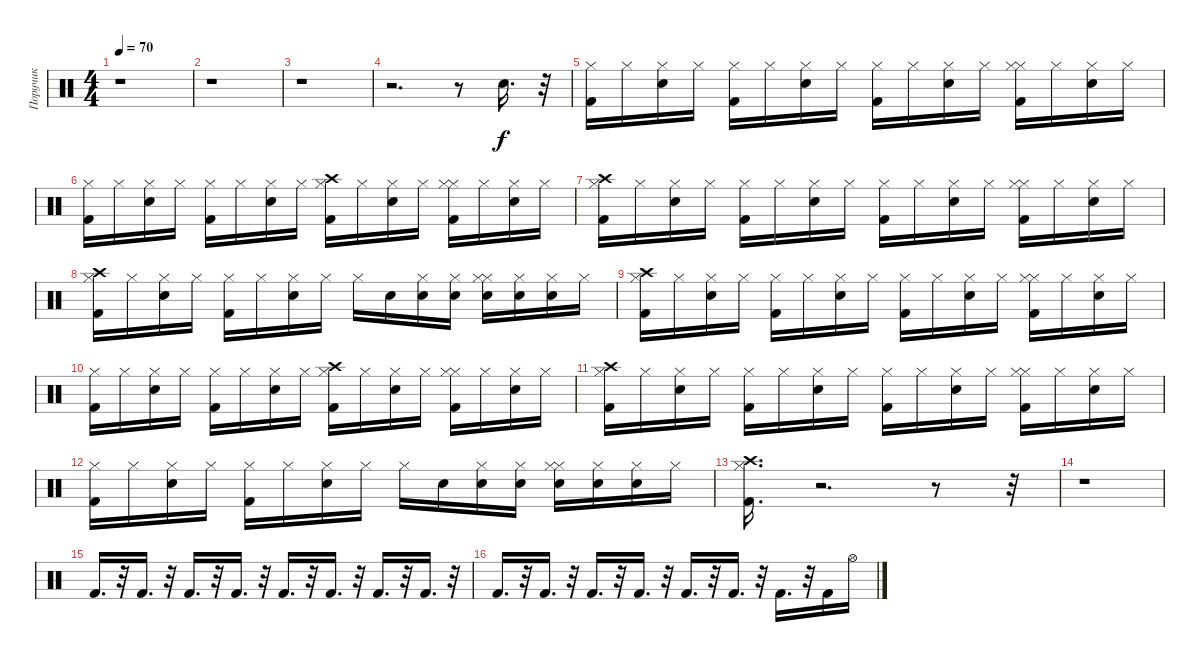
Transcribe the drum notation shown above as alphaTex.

\track ("Поручик" "Поручик") {instrument percussion}
\staff {score}
\articulation defaults
\ts (4 4)
\tempo 70
\clef neutral
\ks c
r.1{dy f} |
r.1 |
r.1 |
r.2{d} r.8 "Electric Snare (hit)".16{d} r.32 |
("Hi-Hat (closed)" "Kick (hit) 2").16 "Hi-Hat (closed)".16 ("Hi-Hat (closed)" "Electric Snare (hit)").16 "Hi-Hat (closed)".16 ("Hi-Hat (closed)" "Kick (hit) 2").16 "Hi-Hat (closed)".16 ("Hi-Hat (closed)" "Electric Snare (hit)").16 "Hi-Hat (closed)".16 ("Hi-Hat (closed)" "Kick (hit) 2").16 "Hi-Hat (closed)".16 ("Hi-Hat (closed)" "Electric Snare (hit)").16 "Hi-Hat (closed)".16 ("Hi-Hat (closed)" "Hi-Hat (closed)" "Kick (hit) 2").16 "Hi-Hat (closed)".16 ("Hi-Hat (closed)" "Electric Snare (hit)").16 "Hi-Hat (closed)".16 |
("Hi-Hat (closed)" "Kick (hit) 2").16 "Hi-Hat (closed)".16 ("Hi-Hat (closed)" "Electric Snare (hit)").16 "Hi-Hat (closed)".16 ("Hi-Hat (closed)" "Kick (hit) 2").16 "Hi-Hat (closed)".16 ("Hi-Hat (closed)" "Electric Snare (hit)").16 "Hi-Hat (closed)".16 ("Crash high (hit)" "Hi-Hat (closed)" "Kick (hit) 2").16 "Hi-Hat (closed)".16 ("Hi-Hat (closed)" "Electric Snare (hit)").16 "Hi-Hat (closed)".16 ("Hi-Hat (closed)" "Hi-Hat (closed)" "Kick (hit) 2").16 "Hi-Hat (closed)".16 ("Hi-Hat (closed)" "Electric Snare (hit)").16 "Hi-Hat (closed)".16 |
("Hi-Hat (closed)" "Kick (hit) 2" "Crash high (hit)").16 "Hi-Hat (closed)".16 ("Hi-Hat (closed)" "Electric Snare (hit)").16 "Hi-Hat (closed)".16 ("Hi-Hat (closed)" "Kick (hit) 2").16 "Hi-Hat (closed)".16 ("Hi-Hat (closed)" "Electric Snare (hit)").16 "Hi-Hat (closed)".16 ("Hi-Hat (closed)" "Kick (hit) 2").16 "Hi-Hat (closed)".16 ("Hi-Hat (closed)" "Electric Snare (hit)").16 "Hi-Hat (closed)".16 ("Hi-Hat (closed)" "Hi-Hat (closed)" "Kick (hit) 2").16 "Hi-Hat (closed)".16 ("Hi-Hat (closed)" "Electric Snare (hit)").16 "Hi-Hat (closed)".16 |
("Crash high (hit)" "Hi-Hat (closed)" "Kick (hit) 2").16 "Hi-Hat (closed)".16 ("Hi-Hat (closed)" "Electric Snare (hit)").16 "Hi-Hat (closed)".16 ("Hi-Hat (closed)" "Kick (hit) 2").16 "Hi-Hat (closed)".16 ("Hi-Hat (closed)" "Electric Snare (hit)").16 "Hi-Hat (closed)".16 "Hi-Hat (closed)".16 "Electric Snare (hit)".16 ("Electric Snare (hit)" "Hi-Hat (closed)").16 ("Electric Snare (hit)" "Hi-Hat (closed)").16 ("Electric Snare (hit)" "Hi-Hat (closed)" "Hi-Hat (closed)").16 ("Electric Snare (hit)" "Hi-Hat (closed)").16 ("Electric Snare (hit)" "Hi-Hat (closed)").16 "Hi-Hat (closed)".16 |
("Hi-Hat (closed)" "Kick (hit) 2" "Crash high (hit)").16 "Hi-Hat (closed)".16 ("Hi-Hat (closed)" "Electric Snare (hit)").16 "Hi-Hat (closed)".16 ("Hi-Hat (closed)" "Kick (hit) 2").16 "Hi-Hat (closed)".16 ("Hi-Hat (closed)" "Electric Snare (hit)").16 "Hi-Hat (closed)".16 ("Hi-Hat (closed)" "Kick (hit) 2").16 "Hi-Hat (closed)".16 ("Hi-Hat (closed)" "Electric Snare (hit)").16 "Hi-Hat (closed)".16 ("Hi-Hat (closed)" "Hi-Hat (closed)" "Kick (hit) 2").16 "Hi-Hat (closed)".16 ("Hi-Hat (closed)" "Electric Snare (hit)").16 "Hi-Hat (closed)".16 |
("Hi-Hat (closed)" "Kick (hit) 2").16 "Hi-Hat (closed)".16 ("Hi-Hat (closed)" "Electric Snare (hit)").16 "Hi-Hat (closed)".16 ("Hi-Hat (closed)" "Kick (hit) 2").16 "Hi-Hat (closed)".16 ("Hi-Hat (closed)" "Electric Snare (hit)").16 "Hi-Hat (closed)".16 ("Crash high (hit)" "Hi-Hat (closed)" "Kick (hit) 2").16 "Hi-Hat (closed)".16 ("Hi-Hat (closed)" "Electric Snare (hit)").16 "Hi-Hat (closed)".16 ("Hi-Hat (closed)" "Hi-Hat (closed)" "Kick (hit) 2").16 "Hi-Hat (closed)".16 ("Hi-Hat (closed)" "Electric Snare (hit)").16 "Hi-Hat (closed)".16 |
("Hi-Hat (closed)" "Kick (hit) 2" "Crash high (hit)").16 "Hi-Hat (closed)".16 ("Hi-Hat (closed)" "Electric Snare (hit)").16 "Hi-Hat (closed)".16 ("Hi-Hat (closed)" "Kick (hit) 2").16 "Hi-Hat (closed)".16 ("Hi-Hat (closed)" "Electric Snare (hit)").16 "Hi-Hat (closed)".16 ("Hi-Hat (closed)" "Kick (hit) 2").16 "Hi-Hat (closed)".16 ("Hi-Hat (closed)" "Electric Snare (hit)").16 "Hi-Hat (closed)".16 ("Hi-Hat (closed)" "Hi-Hat (closed)" "Kick (hit) 2").16 "Hi-Hat (closed)".16 ("Hi-Hat (closed)" "Electric Snare (hit)").16 "Hi-Hat (closed)".16 |
("Hi-Hat (closed)" "Kick (hit) 2").16 "Hi-Hat (closed)".16 ("Hi-Hat (closed)" "Electric Snare (hit)").16 "Hi-Hat (closed)".16 ("Hi-Hat (closed)" "Kick (hit) 2").16 "Hi-Hat (closed)".16 ("Hi-Hat (closed)" "Electric Snare (hit)").16 "Hi-Hat (closed)".16 "Hi-Hat (closed)".16 "Electric Snare (hit)".16 ("Electric Snare (hit)" "Hi-Hat (closed)").16 ("Electric Snare (hit)" "Hi-Hat (closed)").16 ("Electric Snare (hit)" "Hi-Hat (closed)" "Hi-Hat (closed)").16 ("Electric Snare (hit)" "Hi-Hat (closed)").16 ("Electric Snare (hit)" "Hi-Hat (closed)").16 "Hi-Hat (closed)".16 |
("Hi-Hat (closed)" "Kick (hit) 2" "Crash high (hit)").16{d} r.2{d} r.8 r.32 |
r.1 |
"Kick (hit) 2".16{d} r.32 "Kick (hit) 2".16{d} r.32 "Kick (hit) 2".16{d} r.32 "Kick (hit) 2".16{d} r.32 "Kick (hit) 2".16{d} r.32 "Kick (hit) 2".16{d} r.32 "Kick (hit) 2".16{d} r.32 "Kick (hit) 2".16{d} r.32 |
"Kick (hit) 2".16{d} r.32 "Kick (hit) 2".16{d} r.32 "Kick (hit) 2".16{d} r.32 "Kick (hit) 2".16{d} r.32 "Kick (hit) 2".16{d} r.32 "Kick (hit) 2".16{d} r.32 "Kick (hit) 2".16{d} r.32 "Kick (hit) 2".16 "Hi-Hat (open)".16
